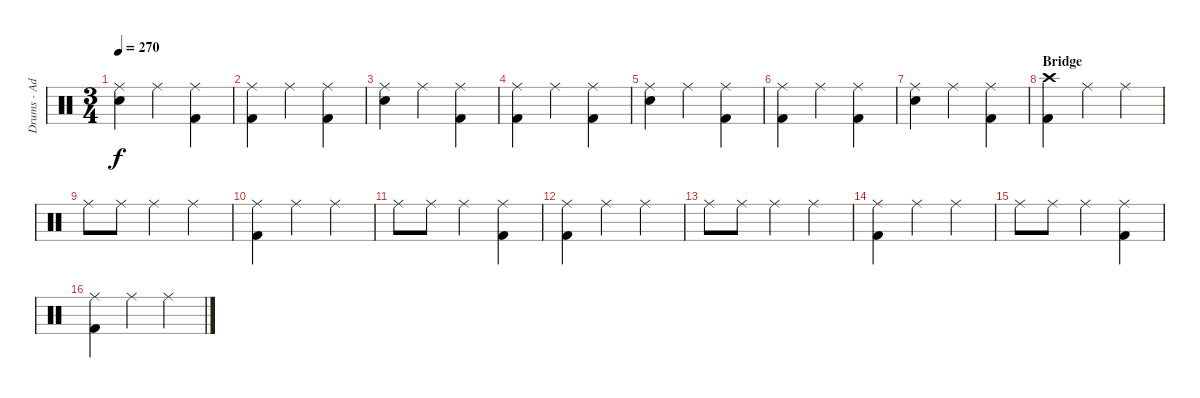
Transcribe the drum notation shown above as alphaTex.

\track ("Drums - Adam" "Drums - Ad") {instrument percussion}
\staff {score}
\articulation defaults
\ts (3 4)
\tempo 270
\clef neutral
\ks c
("Ride (middle)" "Electric Snare (hit)").4{dy f} "Ride (middle)".4 ("Ride (middle)" "Kick (hit) 2").4 |
("Ride (middle)" "Kick (hit) 2").4 "Ride (middle)".4 ("Ride (middle)" "Kick (hit) 2").4 |
("Ride (middle)" "Electric Snare (hit)").4 "Ride (middle)".4 ("Ride (middle)" "Kick (hit) 2").4 |
("Ride (middle)" "Kick (hit) 2").4 "Ride (middle)".4 ("Ride (middle)" "Kick (hit) 2").4 |
("Ride (middle)" "Electric Snare (hit)").4 "Ride (middle)".4 ("Ride (middle)" "Kick (hit) 2").4 |
("Ride (middle)" "Kick (hit) 2").4 "Ride (middle)".4 ("Ride (middle)" "Kick (hit) 2").4 |
("Ride (middle)" "Electric Snare (hit)").4 "Ride (middle)".4 ("Ride (middle)" "Kick (hit) 2").4 |
\section ("" "Bridge")
("Kick (hit) 2" "Crash high (hit)").4 "Ride (middle)".4 "Ride (middle)".4 |
"Ride (middle)".8 "Ride (middle)".8 "Ride (middle)".4 "Ride (middle)".4 |
("Ride (middle)" "Kick (hit) 2").4 "Ride (middle)".4 "Ride (middle)".4 |
"Ride (middle)".8 "Ride (middle)".8 "Ride (middle)".4 ("Ride (middle)" "Kick (hit) 2").4 |
("Ride (middle)" "Kick (hit) 2").4 "Ride (middle)".4 "Ride (middle)".4 |
"Ride (middle)".8 "Ride (middle)".8 "Ride (middle)".4 "Ride (middle)".4 |
("Ride (middle)" "Kick (hit) 2").4 "Ride (middle)".4 "Ride (middle)".4 |
"Ride (middle)".8 "Ride (middle)".8 "Ride (middle)".4 ("Ride (middle)" "Kick (hit) 2").4 |
("Ride (middle)" "Kick (hit) 2").4 "Ride (middle)".4 "Ride (middle)".4
